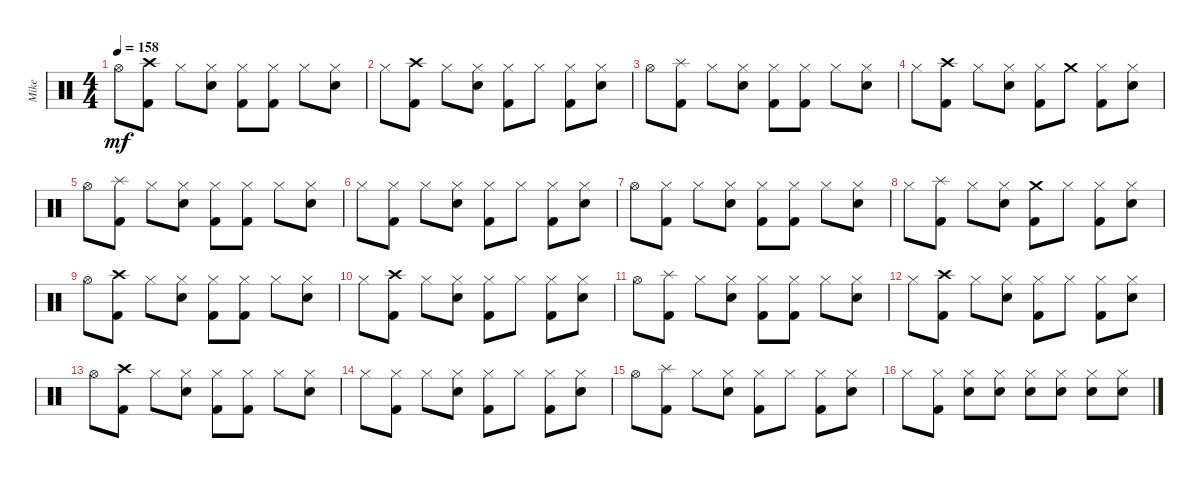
\track ("Mike" "Mike") {instrument percussion}
\staff {score}
\articulation defaults
\ts (4 4)
\tempo 158
\clef neutral
\ks c "Hi-Hat (open)".8{dy mf}
("Crash high (hit)" "Kick (hit) 2").8 "Hi-Hat (closed)".8 ("Hi-Hat (closed)" "Electric Snare (hit)").8 ("Hi-Hat (closed)" "Kick (hit) 2").8 ("Hi-Hat (closed)" "Kick (hit) 2").8 "Hi-Hat (closed)".8 ("Hi-Hat (closed)" "Electric Snare (hit)").8 |
"Hi-Hat (closed)".8 ("Crash high (hit)" "Kick (hit) 2").8 "Hi-Hat (closed)".8 ("Hi-Hat (closed)" "Electric Snare (hit)").8 ("Hi-Hat (closed)" "Kick (hit) 2").8 "Hi-Hat (closed)".8 ("Hi-Hat (closed)" "Kick (hit) 2").8 ("Hi-Hat (closed)" "Electric Snare (hit)").8 |
"Hi-Hat (open)".8 ("Splash (hit)" "Kick (hit) 2").8 "Hi-Hat (closed)".8 ("Hi-Hat (closed)" "Electric Snare (hit)").8 ("Hi-Hat (closed)" "Kick (hit) 2").8 ("Hi-Hat (closed)" "Kick (hit) 2").8 "Hi-Hat (closed)".8 ("Hi-Hat (closed)" "Electric Snare (hit)").8 |
"Hi-Hat (closed)".8 ("Crash high (hit)" "Kick (hit) 2").8 "Hi-Hat (closed)".8 ("Hi-Hat (closed)" "Electric Snare (hit)").8 ("Hi-Hat (closed)" "Kick (hit) 2").8 "Crash medium (hit)".8 ("Hi-Hat (closed)" "Kick (hit) 2").8 ("Hi-Hat (closed)" "Electric Snare (hit)").8 |
"Hi-Hat (open)".8 ("Splash (hit)" "Kick (hit) 2").8 "Hi-Hat (closed)".8 ("Hi-Hat (closed)" "Electric Snare (hit)").8 ("Hi-Hat (closed)" "Kick (hit) 2").8 ("Hi-Hat (closed)" "Kick (hit) 2").8 "Hi-Hat (closed)".8 ("Hi-Hat (closed)" "Electric Snare (hit)").8 |
"Hi-Hat (closed)".8 ("Hi-Hat (closed)" "Kick (hit) 2").8 "Hi-Hat (closed)".8 ("Hi-Hat (closed)" "Electric Snare (hit)").8 ("Hi-Hat (closed)" "Kick (hit) 2").8 "Hi-Hat (closed)".8 ("Hi-Hat (closed)" "Kick (hit) 2").8 ("Hi-Hat (closed)" "Electric Snare (hit)").8 |
"Hi-Hat (open)".8 ("Hi-Hat (closed)" "Kick (hit) 2").8 "Hi-Hat (closed)".8 ("Hi-Hat (closed)" "Electric Snare (hit)").8 ("Hi-Hat (closed)" "Kick (hit) 2").8 ("Hi-Hat (closed)" "Kick (hit) 2").8 "Hi-Hat (closed)".8 ("Hi-Hat (closed)" "Electric Snare (hit)").8 |
"Hi-Hat (closed)".8 ("Splash (hit)" "Kick (hit) 2").8 "Hi-Hat (closed)".8 ("Hi-Hat (closed)" "Electric Snare (hit)").8 ("Crash medium (hit)" "Kick (hit) 2").8 "Hi-Hat (closed)".8 ("Hi-Hat (closed)" "Kick (hit) 2").8 ("Hi-Hat (closed)" "Electric Snare (hit)").8 |
"Hi-Hat (open)".8 ("Crash high (hit)" "Kick (hit) 2").8 "Hi-Hat (closed)".8 ("Hi-Hat (closed)" "Electric Snare (hit)").8 ("Hi-Hat (closed)" "Kick (hit) 2").8 ("Hi-Hat (closed)" "Kick (hit) 2").8 "Hi-Hat (closed)".8 ("Hi-Hat (closed)" "Electric Snare (hit)").8 |
"Hi-Hat (closed)".8 ("Crash high (hit)" "Kick (hit) 2").8 "Hi-Hat (closed)".8 ("Hi-Hat (closed)" "Electric Snare (hit)").8 ("Hi-Hat (closed)" "Kick (hit) 2").8 "Hi-Hat (closed)".8 ("Hi-Hat (closed)" "Kick (hit) 2").8 ("Hi-Hat (closed)" "Electric Snare (hit)").8 |
"Hi-Hat (open)".8 ("Splash (hit)" "Kick (hit) 2").8 "Hi-Hat (closed)".8 ("Hi-Hat (closed)" "Electric Snare (hit)").8 ("Hi-Hat (closed)" "Kick (hit) 2").8 ("Hi-Hat (closed)" "Kick (hit) 2").8 "Hi-Hat (closed)".8 ("Hi-Hat (closed)" "Electric Snare (hit)").8 |
"Hi-Hat (closed)".8 ("Crash high (hit)" "Kick (hit) 2").8 "Hi-Hat (closed)".8 ("Hi-Hat (closed)" "Electric Snare (hit)").8 ("Hi-Hat (closed)" "Kick (hit) 2").8 "Hi-Hat (closed)".8 ("Hi-Hat (closed)" "Kick (hit) 2").8 ("Hi-Hat (closed)" "Electric Snare (hit)").8 |
"Hi-Hat (open)".8 ("Crash high (hit)" "Kick (hit) 2").8 "Hi-Hat (closed)".8 ("Hi-Hat (closed)" "Electric Snare (hit)").8 ("Hi-Hat (closed)" "Kick (hit) 2").8 ("Hi-Hat (closed)" "Kick (hit) 2").8 "Hi-Hat (closed)".8 ("Hi-Hat (closed)" "Electric Snare (hit)").8 |
"Hi-Hat (closed)".8 ("Hi-Hat (closed)" "Kick (hit) 2").8 "Hi-Hat (closed)".8 ("Hi-Hat (closed)" "Electric Snare (hit)").8 ("Hi-Hat (closed)" "Kick (hit) 2").8 "Hi-Hat (closed)".8 ("Hi-Hat (closed)" "Kick (hit) 2").8 ("Hi-Hat (closed)" "Electric Snare (hit)").8 |
"Hi-Hat (open)".8 ("Splash (hit)" "Kick (hit) 2").8 "Hi-Hat (closed)".8 ("Hi-Hat (closed)" "Electric Snare (hit)").8 ("Hi-Hat (closed)" "Kick (hit) 2").8 "Hi-Hat (closed)".8 ("Hi-Hat (closed)" "Kick (hit) 2").8 ("Hi-Hat (closed)" "Electric Snare (hit)").8 |
"Hi-Hat (closed)".8 ("Hi-Hat (closed)" "Kick (hit) 2").8 ("Hi-Hat (closed)" "Electric Snare (hit)").8 ("Hi-Hat (closed)" "Electric Snare (hit)").8 ("Hi-Hat (closed)" "Electric Snare (hit)").8 ("Hi-Hat (closed)" "Electric Snare (hit)").8 ("Hi-Hat (closed)" "Electric Snare (hit)").8 ("Hi-Hat (closed)" "Electric Snare (hit)").8
